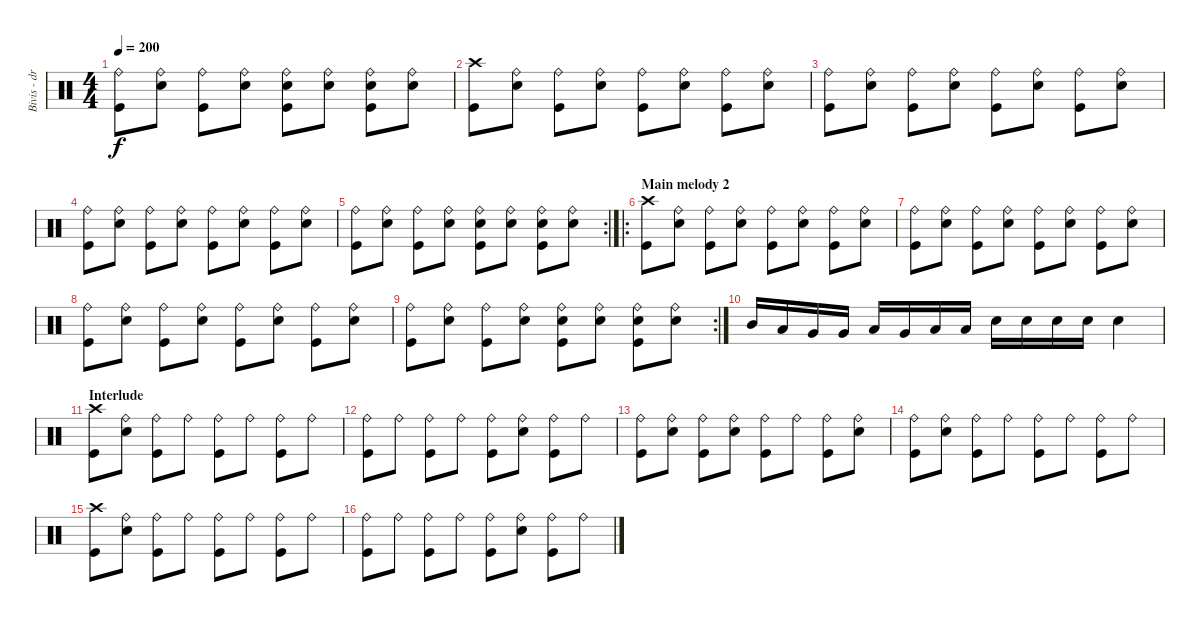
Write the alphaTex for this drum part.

\track ("Bivis - drums" "Bivis - dr") {instrument percussion}
\staff {score}
\articulation defaults
\ts (4 4)
\tempo 200
\clef neutral
\ks c
("Ride (bell)" "Kick (hit)").8{dy f} ("Ride (bell)" "Electric Snare (hit)").8 ("Ride (bell)" "Kick (hit)").8 ("Ride (bell)" "Electric Snare (hit)").8 ("Ride (bell)" "Snare (hit) 2" "Kick (hit)").8 ("Ride (bell)" "Electric Snare (hit)").8 ("Ride (bell)" "Snare (hit) 2" "Kick (hit)").8 ("Ride (bell)" "Electric Snare (hit)").8 |
("Crash high (hit)" "Kick (hit)").8 ("Ride (bell)" "Electric Snare (hit)").8 ("Ride (bell)" "Kick (hit)").8 ("Ride (bell)" "Electric Snare (hit)").8 ("Ride (bell)" "Kick (hit)").8 ("Ride (bell)" "Electric Snare (hit)").8 ("Ride (bell)" "Kick (hit)").8 ("Ride (bell)" "Electric Snare (hit)").8 |
("Ride (bell)" "Kick (hit)").8 ("Ride (bell)" "Electric Snare (hit)").8 ("Ride (bell)" "Kick (hit)").8 ("Ride (bell)" "Electric Snare (hit)").8 ("Ride (bell)" "Kick (hit)").8 ("Ride (bell)" "Electric Snare (hit)").8 ("Ride (bell)" "Kick (hit)").8 ("Ride (bell)" "Electric Snare (hit)").8 |
("Ride (bell)" "Kick (hit)").8 ("Ride (bell)" "Electric Snare (hit)").8 ("Ride (bell)" "Kick (hit)").8 ("Ride (bell)" "Electric Snare (hit)").8 ("Ride (bell)" "Kick (hit)").8 ("Ride (bell)" "Electric Snare (hit)").8 ("Ride (bell)" "Kick (hit)").8 ("Ride (bell)" "Electric Snare (hit)").8 |
\rc 2
("Ride (bell)" "Kick (hit)").8 ("Ride (bell)" "Electric Snare (hit)").8 ("Ride (bell)" "Kick (hit)").8 ("Ride (bell)" "Electric Snare (hit)").8 ("Ride (bell)" "Snare (hit) 2" "Kick (hit)").8 ("Ride (bell)" "Electric Snare (hit)").8 ("Ride (bell)" "Snare (hit) 2" "Kick (hit)").8 ("Ride (bell)" "Electric Snare (hit)").8 |
\ro
\section ("" "Main melody 2")
("Crash high (hit)" "Kick (hit)").8 ("Ride (bell)" "Electric Snare (hit)").8 ("Ride (bell)" "Kick (hit)").8 ("Ride (bell)" "Electric Snare (hit)").8 ("Ride (bell)" "Kick (hit)").8 ("Ride (bell)" "Electric Snare (hit)").8 ("Ride (bell)" "Kick (hit)").8 ("Ride (bell)" "Electric Snare (hit)").8 |
("Ride (bell)" "Kick (hit)").8 ("Ride (bell)" "Electric Snare (hit)").8 ("Ride (bell)" "Kick (hit)").8 ("Ride (bell)" "Electric Snare (hit)").8 ("Ride (bell)" "Kick (hit)").8 ("Ride (bell)" "Electric Snare (hit)").8 ("Ride (bell)" "Kick (hit)").8 ("Ride (bell)" "Electric Snare (hit)").8 |
("Ride (bell)" "Kick (hit)").8 ("Ride (bell)" "Electric Snare (hit)").8 ("Ride (bell)" "Kick (hit)").8 ("Ride (bell)" "Electric Snare (hit)").8 ("Ride (bell)" "Kick (hit)").8 ("Ride (bell)" "Electric Snare (hit)").8 ("Ride (bell)" "Kick (hit)").8 ("Ride (bell)" "Electric Snare (hit)").8 |
\rc 2
("Ride (bell)" "Kick (hit)").8 ("Ride (bell)" "Electric Snare (hit)").8 ("Ride (bell)" "Kick (hit)").8 ("Ride (bell)" "Electric Snare (hit)").8 ("Ride (bell)" "Snare (hit) 2" "Kick (hit)").8 ("Ride (bell)" "Electric Snare (hit)").8 ("Ride (bell)" "Snare (hit) 2" "Kick (hit)").8 ("Ride (bell)" "Electric Snare (hit)").8 |
"Mid Tom (hit)".16 "Low Tom (hit)".16 "Very Low Tom (hit)".16 "Very Low Tom (hit)".16 "Low Tom (hit)".16 "Very Low Tom (hit)".16 "Low Floor Tom (hit)".16 "Low Floor Tom (hit)".16 "Electric Snare (hit)".16 "Electric Snare (hit)".16 "Electric Snare (hit)".16 "Electric Snare (hit)".16 "Electric Snare (hit)".4 |
\section ("" "Interlude")
("Crash high (hit)" "Kick (hit)").8 ("Ride (bell)" "Electric Snare (hit)").8 ("Ride (bell)" "Kick (hit)").8 "Ride (bell)".8 ("Ride (bell)" "Kick (hit)").8 "Ride (bell)".8 ("Ride (bell)" "Kick (hit)").8 "Ride (bell)".8 |
("Ride (bell)" "Kick (hit)").8 "Ride (bell)".8 ("Ride (bell)" "Kick (hit)").8 "Ride (bell)".8 ("Ride (bell)" "Kick (hit)").8 ("Ride (bell)" "Electric Snare (hit)").8 ("Ride (bell)" "Kick (hit)").8 "Ride (bell)".8 |
("Ride (bell)" "Kick (hit)").8 ("Ride (bell)" "Electric Snare (hit)").8 ("Ride (bell)" "Kick (hit)").8 ("Ride (bell)" "Electric Snare (hit)").8 ("Ride (bell)" "Kick (hit)").8 "Ride (bell)".8 ("Ride (bell)" "Kick (hit)").8 ("Ride (bell)" "Electric Snare (hit)").8 |
("Ride (bell)" "Kick (hit)").8 ("Ride (bell)" "Electric Snare (hit)").8 ("Ride (bell)" "Kick (hit)").8 "Ride (bell)".8 ("Ride (bell)" "Kick (hit)").8 "Ride (bell)".8 ("Ride (bell)" "Kick (hit)").8 "Ride (bell)".8 |
("Crash high (hit)" "Kick (hit)").8 ("Ride (bell)" "Electric Snare (hit)").8 ("Ride (bell)" "Kick (hit)").8 "Ride (bell)".8 ("Ride (bell)" "Kick (hit)").8 "Ride (bell)".8 ("Ride (bell)" "Kick (hit)").8 "Ride (bell)".8 |
("Ride (bell)" "Kick (hit)").8 "Ride (bell)".8 ("Ride (bell)" "Kick (hit)").8 "Ride (bell)".8 ("Ride (bell)" "Kick (hit)").8 ("Ride (bell)" "Electric Snare (hit)").8 ("Ride (bell)" "Kick (hit)").8 "Ride (bell)".8
